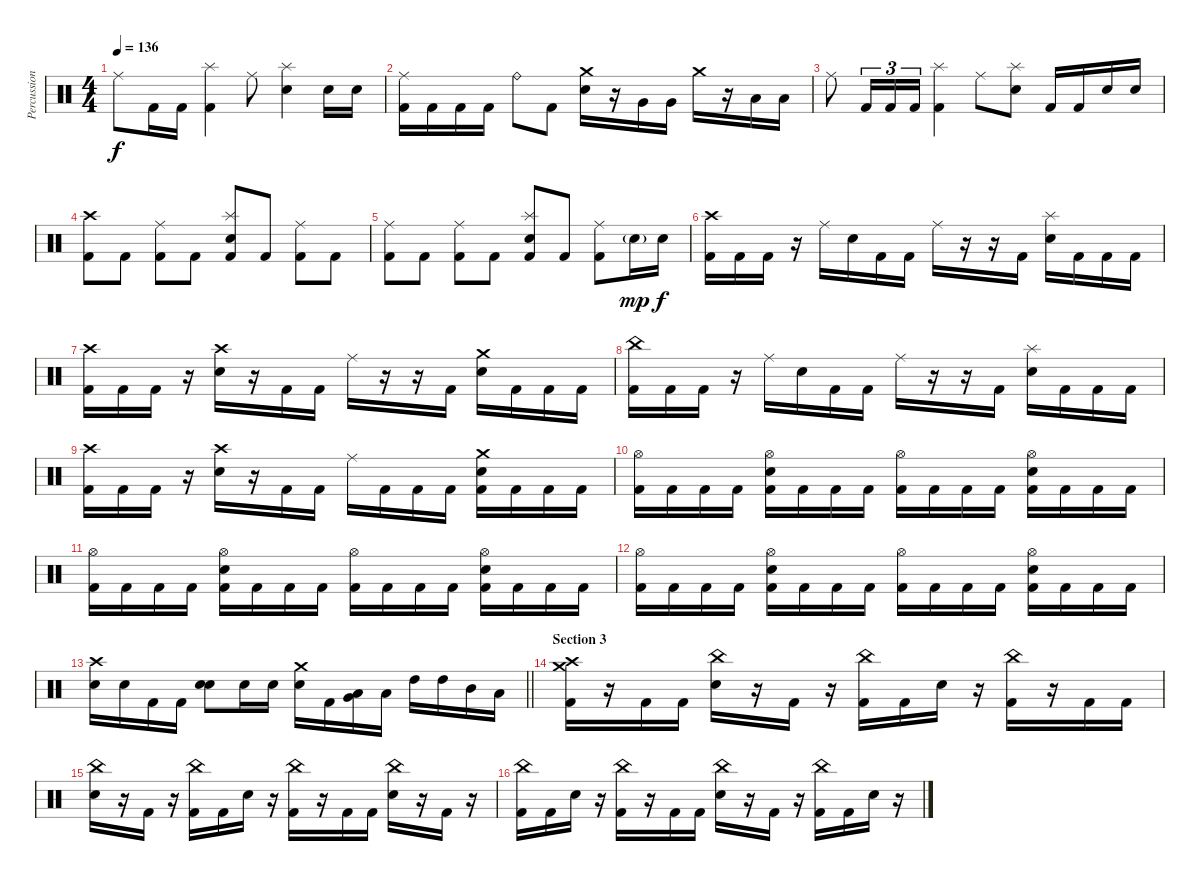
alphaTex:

\track ("Percussion" "Percussion") {instrument percussion}
\staff {score}
\articulation defaults
\ts (4 4)
\tempo 136
\clef neutral
\ks c "Ride (middle)".8{dy f} "Kick (hit) 2".16 "Kick (hit) 2".16
("Splash (hit)" "Kick (hit) 2").4 "Ride (middle)".8 ("Splash (hit)" "Electric Snare (hit)").4 "Electric Snare (hit)".16 "Electric Snare (hit)".16 |
("Ride (middle)" "Kick (hit) 2").16 "Kick (hit) 2".16 "Kick (hit) 2".16 "Kick (hit) 2".16 "Ride (bell)".8 "Kick (hit) 2".8 ("Crash medium (hit)" "Electric Snare (hit)").16 r.16 "Very Low Tom (hit)".16 "Very Low Tom (hit)".16 "Crash medium (hit)".16 r.16 "Low Floor Tom (hit)".16 "Low Floor Tom (hit)".16 |
"Ride (middle)".8 "Kick (hit) 2".16{tu (3 2)} "Kick (hit) 2".16{tu (3 2)} "Kick (hit) 2".16{tu (3 2)} ("Splash (hit)" "Kick (hit) 2").4 "Ride (middle)".8 ("Splash (hit)" "Electric Snare (hit)").8 "Kick (hit) 2".16 "Kick (hit) 2".16 "Electric Snare (hit)".16 "Electric Snare (hit)".16 |
("Crash high (hit)" "Kick (hit) 2").8 "Kick (hit) 2".8 ("Ride (middle)" "Kick (hit) 2").8 "Kick (hit) 2".8 ("Splash (hit)" "Electric Snare (hit)" "Kick (hit) 2").8 "Kick (hit) 2".8 ("Ride (middle)" "Kick (hit) 2").8 "Kick (hit) 2".8 |
("Ride (middle)" "Kick (hit) 2").8 "Kick (hit) 2".8 ("Ride (middle)" "Kick (hit) 2").8 "Kick (hit) 2".8 ("Splash (hit)" "Electric Snare (hit)" "Kick (hit) 2").8 "Kick (hit) 2".8 ("Ride (middle)" "Kick (hit) 2").8 "Electric Snare (hit)"{g}.16{dy mp} "Electric Snare (hit)".16{dy f} |
("Crash high (hit)" "Kick (hit) 2").16 "Kick (hit) 2".16 "Kick (hit) 2".16 r.16 "Ride (middle)".16 "Electric Snare (hit)".16 "Kick (hit) 2".16 "Kick (hit) 2".16 "Ride (middle)".16 r.16 r.16 "Kick (hit) 2".16 ("Splash (hit)" "Electric Snare (hit)").16 "Kick (hit) 2".16 "Kick (hit) 2".16 "Kick (hit) 2".16 |
("Crash high (hit)" "Kick (hit) 2").16 "Kick (hit) 2".16 "Kick (hit) 2".16 r.16 ("Crash high (hit)" "Electric Snare (hit)").16 r.16 "Kick (hit) 2".16 "Kick (hit) 2".16 "Ride (middle)".16 r.16 r.16 "Kick (hit) 2".16 ("Crash medium (hit)" "Electric Snare (hit)").16 "Kick (hit) 2".16 "Kick (hit) 2".16 "Kick (hit) 2".16 |
("China (hit)" "Kick (hit) 2").16 "Kick (hit) 2".16 "Kick (hit) 2".16 r.16 "Ride (middle)".16 "Electric Snare (hit)".16 "Kick (hit) 2".16 "Kick (hit) 2".16 "Ride (middle)".16 r.16 r.16 "Kick (hit) 2".16 ("Splash (hit)" "Electric Snare (hit)").16 "Kick (hit) 2".16 "Kick (hit) 2".16 "Kick (hit) 2".16 |
("Crash high (hit)" "Kick (hit) 2").16 "Kick (hit) 2".16 "Kick (hit) 2".16 r.16 ("Crash high (hit)" "Electric Snare (hit)").16 r.16 "Kick (hit) 2".16 "Kick (hit) 2".16 "Ride (middle)".16 "Kick (hit) 2".16 "Kick (hit) 2".16 "Kick (hit) 2".16 ("Crash medium (hit)" "Electric Snare (hit)" "Kick (hit) 2").16 "Kick (hit) 2".16 "Kick (hit) 2".16 "Kick (hit) 2".16 |
("Hi-Hat (open)" "Kick (hit) 2").16 "Kick (hit) 2".16 "Kick (hit) 2".16 "Kick (hit) 2".16 ("Hi-Hat (open)" "Electric Snare (hit)" "Kick (hit) 2").16 "Kick (hit) 2".16 "Kick (hit) 2".16 "Kick (hit) 2".16 ("Hi-Hat (open)" "Kick (hit) 2").16 "Kick (hit) 2".16 "Kick (hit) 2".16 "Kick (hit) 2".16 ("Hi-Hat (open)" "Electric Snare (hit)" "Kick (hit) 2").16 "Kick (hit) 2".16 "Kick (hit) 2".16 "Kick (hit) 2".16 |
("Hi-Hat (open)" "Kick (hit) 2").16 "Kick (hit) 2".16 "Kick (hit) 2".16 "Kick (hit) 2".16 ("Hi-Hat (open)" "Electric Snare (hit)" "Kick (hit) 2").16 "Kick (hit) 2".16 "Kick (hit) 2".16 "Kick (hit) 2".16 ("Hi-Hat (open)" "Kick (hit) 2").16 "Kick (hit) 2".16 "Kick (hit) 2".16 "Kick (hit) 2".16 ("Hi-Hat (open)" "Electric Snare (hit)" "Kick (hit) 2").16 "Kick (hit) 2".16 "Kick (hit) 2".16 "Kick (hit) 2".16 |
("Hi-Hat (open)" "Kick (hit) 2").16 "Kick (hit) 2".16 "Kick (hit) 2".16 "Kick (hit) 2".16 ("Hi-Hat (open)" "Electric Snare (hit)" "Kick (hit) 2").16 "Kick (hit) 2".16 "Kick (hit) 2".16 "Kick (hit) 2".16 ("Hi-Hat (open)" "Kick (hit) 2").16 "Kick (hit) 2".16 "Kick (hit) 2".16 "Kick (hit) 2".16 ("Hi-Hat (open)" "Electric Snare (hit)" "Kick (hit) 2").16 "Kick (hit) 2".16 "Kick (hit) 2".16 "Kick (hit) 2".16 |
\barLineRight lightlight
("Crash high (hit)" "Electric Snare (hit)").16 "Electric Snare (hit)".16 "Kick (hit) 2".16 "Kick (hit) 2".16 ("Electric Snare (hit)" "Electric Snare (hit)").8{bd 240} "Electric Snare (hit)".16 "Electric Snare (hit)".16 ("Crash medium (hit)" "Electric Snare (hit)").16 "Kick (hit) 2".16 ("Very Low Tom (hit)" "Low Tom (hit)").16{bd 240} "Low Floor Tom (hit)".16 "High Tom (hit)".16 "High Tom (hit)".16 "Mid Tom (hit)".16 "Low Tom (hit)".16 |
\section ("" "Section 3")
("Crash high (hit)" "Crash medium (hit)" "Kick (hit) 2").16 r.16 "Kick (hit) 2".16 "Kick (hit) 2".16 ("China (hit)" "Electric Snare (hit)").16 r.16 "Kick (hit) 2".16 r.16 ("China (hit)" "Kick (hit) 2").16 "Kick (hit) 2".16 "Electric Snare (hit)".16 r.16 ("China (hit)" "Kick (hit) 2").16 r.16 "Kick (hit) 2".16 "Kick (hit) 2".16 |
("China (hit)" "Electric Snare (hit)").16 r.16 "Kick (hit) 2".16 r.16 ("China (hit)" "Kick (hit) 2").16 "Kick (hit) 2".16 "Electric Snare (hit)".16 r.16 ("China (hit)" "Kick (hit) 2").16 r.16 "Kick (hit) 2".16 "Kick (hit) 2".16 ("China (hit)" "Electric Snare (hit)").16 r.16 "Kick (hit) 2".16 r.16 |
("China (hit)" "Kick (hit) 2").16 "Kick (hit) 2".16 "Electric Snare (hit)".16 r.16 ("China (hit)" "Kick (hit) 2").16 r.16 "Kick (hit) 2".16 "Kick (hit) 2".16 ("China (hit)" "Electric Snare (hit)").16 r.16 "Kick (hit) 2".16 r.16 ("China (hit)" "Kick (hit) 2").16 "Kick (hit) 2".16 "Electric Snare (hit)".16 r.16
